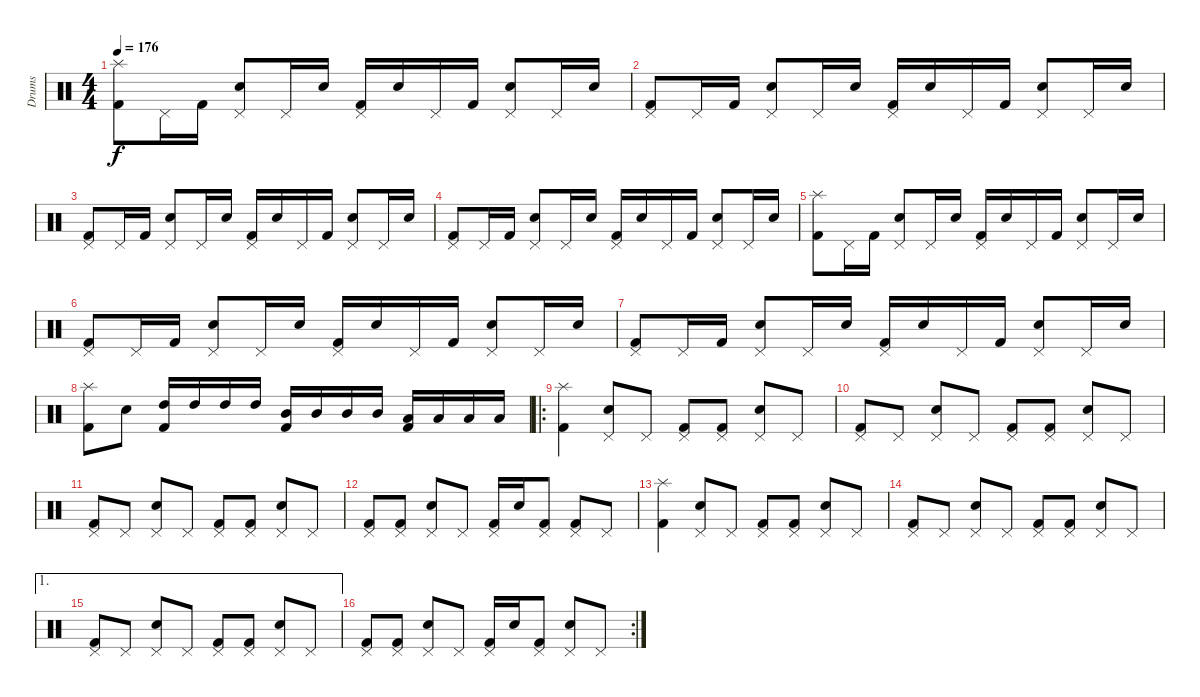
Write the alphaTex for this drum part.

\track ("Drums" "Drums") {instrument percussion}
\staff {score}
\articulation defaults
\ts (4 4)
\tempo 176
\clef neutral
\ks c
("Splash (hit)" "Kick (hit) 2").8{dy f} "Pedal Hi-Hat (hit)".16 "Kick (hit) 2".16 ("Pedal Hi-Hat (hit)" "Snare (hit) 2").8 "Pedal Hi-Hat (hit)".16 "Snare (hit) 2".16 ("Pedal Hi-Hat (hit)" "Kick (hit) 2").16 "Snare (hit) 2".16 "Pedal Hi-Hat (hit)".16 "Kick (hit) 2".16 ("Pedal Hi-Hat (hit)" "Snare (hit) 2").8 "Pedal Hi-Hat (hit)".16 "Snare (hit) 2".16 |
("Pedal Hi-Hat (hit)" "Kick (hit) 2").8 "Pedal Hi-Hat (hit)".16 "Kick (hit) 2".16 ("Pedal Hi-Hat (hit)" "Snare (hit) 2").8 "Pedal Hi-Hat (hit)".16 "Snare (hit) 2".16 ("Pedal Hi-Hat (hit)" "Kick (hit) 2").16 "Snare (hit) 2".16 "Pedal Hi-Hat (hit)".16 "Kick (hit) 2".16 ("Pedal Hi-Hat (hit)" "Snare (hit) 2").8 "Pedal Hi-Hat (hit)".16 "Snare (hit) 2".16 |
("Pedal Hi-Hat (hit)" "Kick (hit) 2").8 "Pedal Hi-Hat (hit)".16 "Kick (hit) 2".16 ("Pedal Hi-Hat (hit)" "Snare (hit) 2").8 "Pedal Hi-Hat (hit)".16 "Snare (hit) 2".16 ("Pedal Hi-Hat (hit)" "Kick (hit) 2").16 "Snare (hit) 2".16 "Pedal Hi-Hat (hit)".16 "Kick (hit) 2".16 ("Pedal Hi-Hat (hit)" "Snare (hit) 2").8 "Pedal Hi-Hat (hit)".16 "Snare (hit) 2".16 |
("Pedal Hi-Hat (hit)" "Kick (hit) 2").8 "Pedal Hi-Hat (hit)".16 "Kick (hit) 2".16 ("Pedal Hi-Hat (hit)" "Snare (hit) 2").8 "Pedal Hi-Hat (hit)".16 "Snare (hit) 2".16 ("Pedal Hi-Hat (hit)" "Kick (hit) 2").16 "Snare (hit) 2".16 "Pedal Hi-Hat (hit)".16 "Kick (hit) 2".16 ("Pedal Hi-Hat (hit)" "Snare (hit) 2").8 "Pedal Hi-Hat (hit)".16 "Snare (hit) 2".16 |
("Splash (hit)" "Kick (hit) 2").8 "Pedal Hi-Hat (hit)".16 "Kick (hit) 2".16 ("Pedal Hi-Hat (hit)" "Snare (hit) 2").8 "Pedal Hi-Hat (hit)".16 "Snare (hit) 2".16 ("Pedal Hi-Hat (hit)" "Kick (hit) 2").16 "Snare (hit) 2".16 "Pedal Hi-Hat (hit)".16 "Kick (hit) 2".16 ("Pedal Hi-Hat (hit)" "Snare (hit) 2").8 "Pedal Hi-Hat (hit)".16 "Snare (hit) 2".16 |
("Pedal Hi-Hat (hit)" "Kick (hit) 2").8 "Pedal Hi-Hat (hit)".16 "Kick (hit) 2".16 ("Pedal Hi-Hat (hit)" "Snare (hit) 2").8 "Pedal Hi-Hat (hit)".16 "Snare (hit) 2".16 ("Pedal Hi-Hat (hit)" "Kick (hit) 2").16 "Snare (hit) 2".16 "Pedal Hi-Hat (hit)".16 "Kick (hit) 2".16 ("Pedal Hi-Hat (hit)" "Snare (hit) 2").8 "Pedal Hi-Hat (hit)".16 "Snare (hit) 2".16 |
("Pedal Hi-Hat (hit)" "Kick (hit) 2").8 "Pedal Hi-Hat (hit)".16 "Kick (hit) 2".16 ("Pedal Hi-Hat (hit)" "Snare (hit) 2").8 "Pedal Hi-Hat (hit)".16 "Snare (hit) 2".16 ("Pedal Hi-Hat (hit)" "Kick (hit) 2").16 "Snare (hit) 2".16 "Pedal Hi-Hat (hit)".16 "Kick (hit) 2".16 ("Pedal Hi-Hat (hit)" "Snare (hit) 2").8 "Pedal Hi-Hat (hit)".16 "Snare (hit) 2".16 |
("Splash (hit)" "Kick (hit) 2").8 "Snare (hit) 2".8 ("High Tom (hit)" "Kick (hit) 2").16 "High Tom (hit)".16 "High Tom (hit)".16 "High Tom (hit)".16 ("Kick (hit) 2" "Mid Tom (hit)").16 "Mid Tom (hit)".16 "Mid Tom (hit)".16 "Mid Tom (hit)".16 ("Low Tom (hit)" "Kick (hit) 2").16 "Low Tom (hit)".16 "Low Tom (hit)".16 "Low Tom (hit)".16 |
\ro
("Splash (hit)" "Kick (hit) 2").4 ("Pedal Hi-Hat (hit)" "Snare (hit) 2").8 "Pedal Hi-Hat (hit)".8 ("Pedal Hi-Hat (hit)" "Kick (hit) 2").8 ("Pedal Hi-Hat (hit)" "Kick (hit) 2").8 ("Pedal Hi-Hat (hit)" "Snare (hit) 2").8 "Pedal Hi-Hat (hit)".8 |
("Pedal Hi-Hat (hit)" "Kick (hit) 2").8 "Pedal Hi-Hat (hit)".8 ("Pedal Hi-Hat (hit)" "Snare (hit) 2").8 "Pedal Hi-Hat (hit)".8 ("Pedal Hi-Hat (hit)" "Kick (hit) 2").8 ("Pedal Hi-Hat (hit)" "Kick (hit) 2").8 ("Pedal Hi-Hat (hit)" "Snare (hit) 2").8 "Pedal Hi-Hat (hit)".8 |
("Pedal Hi-Hat (hit)" "Kick (hit) 2").8 "Pedal Hi-Hat (hit)".8 ("Pedal Hi-Hat (hit)" "Snare (hit) 2").8 "Pedal Hi-Hat (hit)".8 ("Pedal Hi-Hat (hit)" "Kick (hit) 2").8 ("Pedal Hi-Hat (hit)" "Kick (hit) 2").8 ("Pedal Hi-Hat (hit)" "Snare (hit) 2").8 "Pedal Hi-Hat (hit)".8 |
("Pedal Hi-Hat (hit)" "Kick (hit) 2").8 ("Pedal Hi-Hat (hit)" "Kick (hit) 2").8 ("Pedal Hi-Hat (hit)" "Snare (hit) 2").8 "Pedal Hi-Hat (hit)".8 ("Pedal Hi-Hat (hit)" "Kick (hit) 2").16 "Snare (hit) 2".16 ("Pedal Hi-Hat (hit)" "Kick (hit) 2").8 ("Pedal Hi-Hat (hit)" "Kick (hit) 2").8 "Pedal Hi-Hat (hit)".8 |
("Splash (hit)" "Kick (hit) 2").4 ("Pedal Hi-Hat (hit)" "Snare (hit) 2").8 "Pedal Hi-Hat (hit)".8 ("Pedal Hi-Hat (hit)" "Kick (hit) 2").8 ("Pedal Hi-Hat (hit)" "Kick (hit) 2").8 ("Pedal Hi-Hat (hit)" "Snare (hit) 2").8 "Pedal Hi-Hat (hit)".8 |
("Pedal Hi-Hat (hit)" "Kick (hit) 2").8 "Pedal Hi-Hat (hit)".8 ("Pedal Hi-Hat (hit)" "Snare (hit) 2").8 "Pedal Hi-Hat (hit)".8 ("Pedal Hi-Hat (hit)" "Kick (hit) 2").8 ("Pedal Hi-Hat (hit)" "Kick (hit) 2").8 ("Pedal Hi-Hat (hit)" "Snare (hit) 2").8 "Pedal Hi-Hat (hit)".8 |
\ae 1
("Pedal Hi-Hat (hit)" "Kick (hit) 2").8 "Pedal Hi-Hat (hit)".8 ("Pedal Hi-Hat (hit)" "Snare (hit) 2").8 "Pedal Hi-Hat (hit)".8 ("Pedal Hi-Hat (hit)" "Kick (hit) 2").8 ("Pedal Hi-Hat (hit)" "Kick (hit) 2").8 ("Pedal Hi-Hat (hit)" "Snare (hit) 2").8 "Pedal Hi-Hat (hit)".8 |
\rc 2
("Pedal Hi-Hat (hit)" "Kick (hit) 2").8 ("Pedal Hi-Hat (hit)" "Kick (hit) 2").8 ("Pedal Hi-Hat (hit)" "Snare (hit) 2").8 "Pedal Hi-Hat (hit)".8 ("Pedal Hi-Hat (hit)" "Kick (hit) 2").16 "Snare (hit) 2".16 ("Kick (hit) 2" "Pedal Hi-Hat (hit)").8 ("Pedal Hi-Hat (hit)" "Snare (hit) 2").8 "Pedal Hi-Hat (hit)".8
